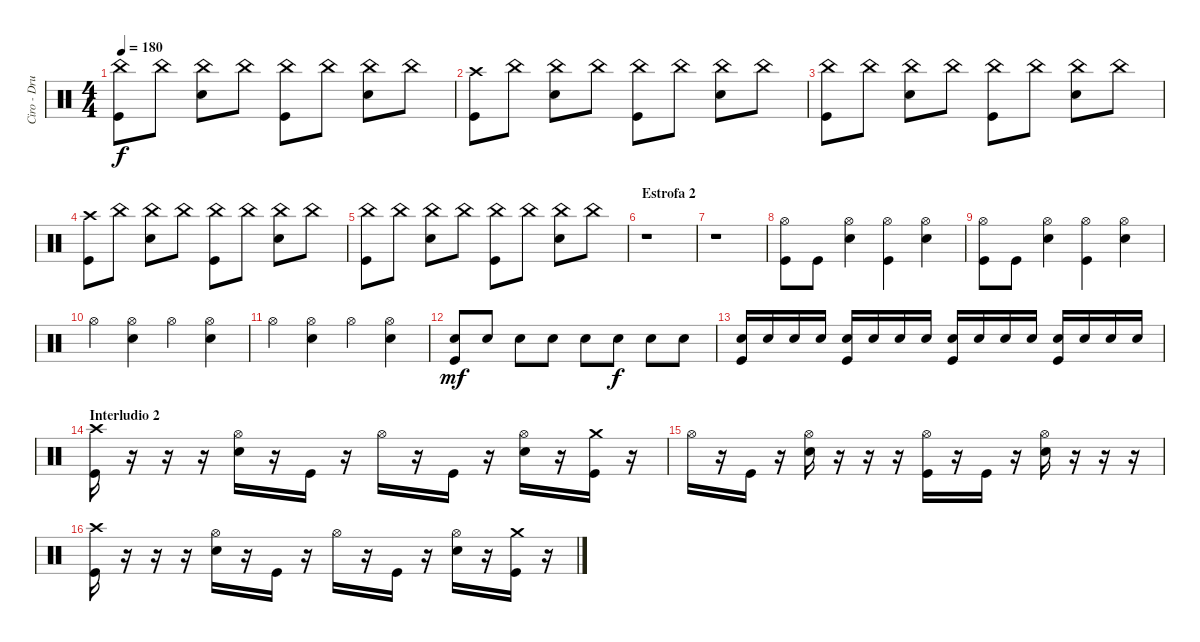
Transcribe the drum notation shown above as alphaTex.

\track ("Ciro - Drums" "Ciro - Dru") {instrument percussion}
\staff {score}
\articulation defaults
\ts (4 4)
\tempo 180
\clef neutral
\ks c
("China (hit)" "Kick (hit)").8{dy f} "China (hit)".8 ("China (hit)" "Electric Snare (hit)").8 "China (hit)".8 ("China (hit)" "Kick (hit)").8 "China (hit)".8 ("China (hit)" "Electric Snare (hit)").8 "China (hit)".8 |
("Crash high (hit)" "Kick (hit)").8 "China (hit)".8 ("China (hit)" "Electric Snare (hit)").8 "China (hit)".8 ("China (hit)" "Kick (hit)").8 "China (hit)".8 ("China (hit)" "Electric Snare (hit)").8 "China (hit)".8 |
("China (hit)" "Kick (hit)").8 "China (hit)".8 ("China (hit)" "Electric Snare (hit)").8 "China (hit)".8 ("China (hit)" "Kick (hit)").8 "China (hit)".8 ("China (hit)" "Electric Snare (hit)").8 "China (hit)".8 |
("Crash high (hit)" "Kick (hit)").8 "China (hit)".8 ("China (hit)" "Electric Snare (hit)").8 "China (hit)".8 ("China (hit)" "Kick (hit)").8 "China (hit)".8 ("China (hit)" "Electric Snare (hit)").8 "China (hit)".8 |
("China (hit)" "Kick (hit)").8 "China (hit)".8 ("China (hit)" "Electric Snare (hit)").8 "China (hit)".8 ("China (hit)" "Kick (hit)").8 "China (hit)".8 ("China (hit)" "Electric Snare (hit)").8 "China (hit)".8 |
\section ("" "Estrofa 2")
r.1 |
r.1 |
("Hi-Hat (open)" "Kick (hit)").8 "Kick (hit)".8 ("Hi-Hat (open)" "Electric Snare (hit)").4 ("Hi-Hat (open)" "Kick (hit)").4 ("Hi-Hat (open)" "Electric Snare (hit)").4 |
("Hi-Hat (open)" "Kick (hit)").8 "Kick (hit)".8 ("Hi-Hat (open)" "Electric Snare (hit)").4 ("Hi-Hat (open)" "Kick (hit)").4 ("Hi-Hat (open)" "Electric Snare (hit)").4 |
"Hi-Hat (open)".4 ("Hi-Hat (open)" "Electric Snare (hit)").4 "Hi-Hat (open)".4 ("Hi-Hat (open)" "Electric Snare (hit)").4 |
"Hi-Hat (open)".4 ("Hi-Hat (open)" "Electric Snare (hit)").4 "Hi-Hat (open)".4 ("Hi-Hat (open)" "Electric Snare (hit)").4 |
("Electric Snare (hit)" "Kick (hit)").8{dy mf} "Electric Snare (hit)".8 "Electric Snare (hit)".8 "Electric Snare (hit)".8 "Electric Snare (hit)".8 "Electric Snare (hit)".8{dy f} "Electric Snare (hit)".8 "Electric Snare (hit)".8 |
("Electric Snare (hit)" "Kick (hit)").16 "Electric Snare (hit)".16 "Electric Snare (hit)".16 "Electric Snare (hit)".16 ("Electric Snare (hit)" "Kick (hit)").16 "Electric Snare (hit)".16 "Electric Snare (hit)".16 "Electric Snare (hit)".16 ("Electric Snare (hit)" "Kick (hit)").16 "Electric Snare (hit)".16 "Electric Snare (hit)".16 "Electric Snare (hit)".16 ("Electric Snare (hit)" "Kick (hit)").16 "Electric Snare (hit)".16 "Electric Snare (hit)".16 "Electric Snare (hit)".16 |
\section ("" "Interludio 2")
("Crash high (hit)" "Kick (hit)").16 r.16 r.16 r.16 ("Hi-Hat (open)" "Electric Snare (hit)").16 r.16 "Kick (hit)".16 r.16 "Hi-Hat (open)".16 r.16 "Kick (hit)".16 r.16 ("Hi-Hat (open)" "Electric Snare (hit)").16 r.16 ("Crash medium (hit)" "Kick (hit)").16 r.16 |
"Hi-Hat (open)".16 r.16 "Kick (hit)".16 r.16 ("Hi-Hat (open)" "Electric Snare (hit)").16 r.16 r.16 r.16 ("Hi-Hat (open)" "Kick (hit)").16 r.16 "Kick (hit)".16 r.16 ("Hi-Hat (open)" "Electric Snare (hit)").16 r.16 r.16 r.16 |
("Crash high (hit)" "Kick (hit)").16 r.16 r.16 r.16 ("Hi-Hat (open)" "Electric Snare (hit)").16 r.16 "Kick (hit)".16 r.16 "Hi-Hat (open)".16 r.16 "Kick (hit)".16 r.16 ("Hi-Hat (open)" "Electric Snare (hit)").16 r.16 ("Crash medium (hit)" "Kick (hit)").16 r.16
